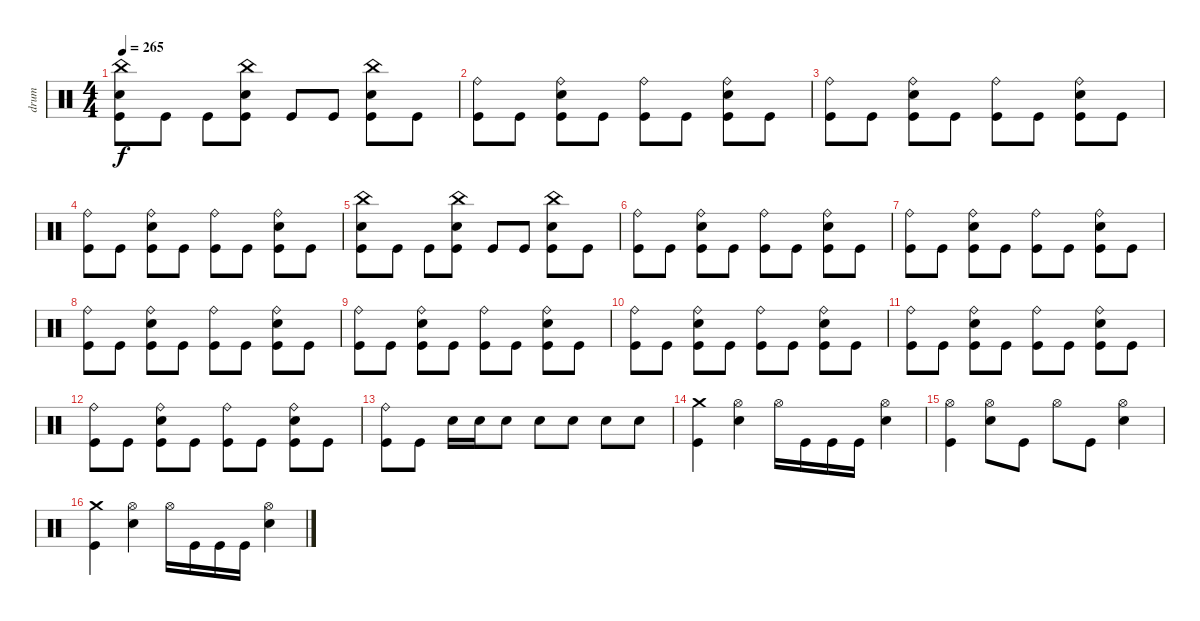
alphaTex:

\track ("drum" "drum") {instrument percussion}
\staff {score}
\articulation defaults
\ts (4 4)
\tempo 265
\clef neutral
\ks c
("Kick (hit)" "Electric Snare (hit)" "China (hit)").8{dy f} "Kick (hit)".8 "Kick (hit)".8 ("Kick (hit)" "Electric Snare (hit)" "China (hit)").8 "Kick (hit)".8 "Kick (hit)".8 ("Kick (hit)" "Electric Snare (hit)" "China (hit)").8 "Kick (hit)".8 |
("Kick (hit)" "Ride (bell)").8 "Kick (hit)".8 ("Kick (hit)" "Electric Snare (hit)" "Ride (bell)").8 "Kick (hit)".8 ("Kick (hit)" "Ride (bell)").8 "Kick (hit)".8 ("Kick (hit)" "Electric Snare (hit)" "Ride (bell)").8 "Kick (hit)".8 |
("Kick (hit)" "Ride (bell)").8 "Kick (hit)".8 ("Kick (hit)" "Electric Snare (hit)" "Ride (bell)").8 "Kick (hit)".8 ("Kick (hit)" "Ride (bell)").8 "Kick (hit)".8 ("Kick (hit)" "Electric Snare (hit)" "Ride (bell)").8 "Kick (hit)".8 |
("Kick (hit)" "Ride (bell)").8 "Kick (hit)".8 ("Kick (hit)" "Electric Snare (hit)" "Ride (bell)").8 "Kick (hit)".8 ("Kick (hit)" "Ride (bell)").8 "Kick (hit)".8 ("Kick (hit)" "Electric Snare (hit)" "Ride (bell)").8 "Kick (hit)".8 |
("Kick (hit)" "Electric Snare (hit)" "China (hit)").8 "Kick (hit)".8 "Kick (hit)".8 ("Kick (hit)" "Electric Snare (hit)" "China (hit)").8 "Kick (hit)".8 "Kick (hit)".8 ("Kick (hit)" "Electric Snare (hit)" "China (hit)").8 "Kick (hit)".8 |
("Kick (hit)" "Ride (bell)").8 "Kick (hit)".8 ("Kick (hit)" "Electric Snare (hit)" "Ride (bell)").8 "Kick (hit)".8 ("Kick (hit)" "Ride (bell)").8 "Kick (hit)".8 ("Kick (hit)" "Electric Snare (hit)" "Ride (bell)").8 "Kick (hit)".8 |
("Kick (hit)" "Ride (bell)").8 "Kick (hit)".8 ("Kick (hit)" "Electric Snare (hit)" "Ride (bell)").8 "Kick (hit)".8 ("Kick (hit)" "Ride (bell)").8 "Kick (hit)".8 ("Kick (hit)" "Electric Snare (hit)" "Ride (bell)").8 "Kick (hit)".8 |
("Kick (hit)" "Ride (bell)").8 "Kick (hit)".8 ("Kick (hit)" "Electric Snare (hit)" "Ride (bell)").8 "Kick (hit)".8 ("Kick (hit)" "Ride (bell)").8 "Kick (hit)".8 ("Kick (hit)" "Electric Snare (hit)" "Ride (bell)").8 "Kick (hit)".8 |
("Kick (hit)" "Ride (bell)").8 "Kick (hit)".8 ("Kick (hit)" "Electric Snare (hit)" "Ride (bell)").8 "Kick (hit)".8 ("Kick (hit)" "Ride (bell)").8 "Kick (hit)".8 ("Kick (hit)" "Electric Snare (hit)" "Ride (bell)").8 "Kick (hit)".8 |
("Kick (hit)" "Ride (bell)").8 "Kick (hit)".8 ("Kick (hit)" "Electric Snare (hit)" "Ride (bell)").8 "Kick (hit)".8 ("Kick (hit)" "Ride (bell)").8 "Kick (hit)".8 ("Kick (hit)" "Electric Snare (hit)" "Ride (bell)").8 "Kick (hit)".8 |
("Kick (hit)" "Ride (bell)").8 "Kick (hit)".8 ("Kick (hit)" "Electric Snare (hit)" "Ride (bell)").8 "Kick (hit)".8 ("Kick (hit)" "Ride (bell)").8 "Kick (hit)".8 ("Kick (hit)" "Electric Snare (hit)" "Ride (bell)").8 "Kick (hit)".8 |
("Kick (hit)" "Ride (bell)").8 "Kick (hit)".8 ("Kick (hit)" "Electric Snare (hit)" "Ride (bell)").8 "Kick (hit)".8 ("Kick (hit)" "Ride (bell)").8 "Kick (hit)".8 ("Kick (hit)" "Electric Snare (hit)" "Ride (bell)").8 "Kick (hit)".8 |
("Kick (hit)" "Ride (bell)").8 "Kick (hit)".8 "Electric Snare (hit)".16 "Electric Snare (hit)".16 "Electric Snare (hit)".8 "Electric Snare (hit)".8 "Electric Snare (hit)".8 "Electric Snare (hit)".8 "Electric Snare (hit)".8 |
("Kick (hit)" "Crash medium (hit)").4 ("Electric Snare (hit)" "Hi-Hat (open)").4 "Hi-Hat (open)".16 "Kick (hit)".16 "Kick (hit)".16 "Kick (hit)".16 ("Electric Snare (hit)" "Hi-Hat (open)").4 |
("Kick (hit)" "Hi-Hat (open)").4 ("Electric Snare (hit)" "Hi-Hat (open)").8 "Kick (hit)".8 "Hi-Hat (open)".8 "Kick (hit)".8 ("Electric Snare (hit)" "Hi-Hat (open)").4 |
("Kick (hit)" "Crash medium (hit)").4 ("Electric Snare (hit)" "Hi-Hat (open)").4 "Hi-Hat (open)".16 "Kick (hit)".16 "Kick (hit)".16 "Kick (hit)".16 ("Electric Snare (hit)" "Hi-Hat (open)").4
